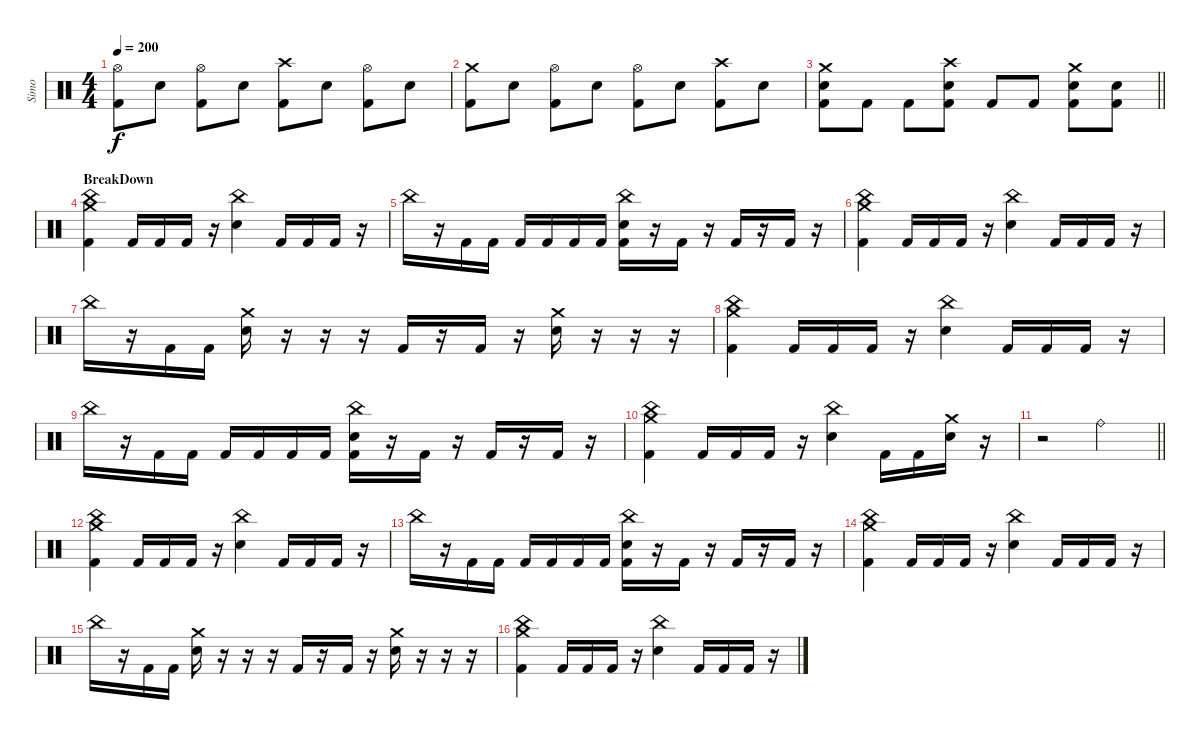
\track ("Simo" "Simo") {instrument percussion bank 121}
\staff {score}
\articulation defaults
\ts (4 4)
\tempo 200
\clef neutral
\ks c
("Kick (hit) 2" "Hi-Hat (open)").8{dy f} "Electric Snare (hit)".8 ("Kick (hit) 2" "Hi-Hat (open)").8 "Electric Snare (hit)".8 ("Kick (hit) 2" "Crash high (hit)").8 "Electric Snare (hit)".8 ("Kick (hit) 2" "Hi-Hat (open)").8 "Electric Snare (hit)".8 |
("Kick (hit) 2" "Crash medium (hit)").8 "Electric Snare (hit)".8 ("Kick (hit) 2" "Hi-Hat (open)").8 "Electric Snare (hit)".8 ("Kick (hit) 2" "Hi-Hat (open)").8 "Electric Snare (hit)".8 ("Kick (hit) 2" "Crash high (hit)").8 "Electric Snare (hit)".8 |
\barLineRight lightlight
("Kick (hit) 2" "Electric Snare (hit)" "Crash medium (hit)").8 "Kick (hit) 2".8 "Kick (hit) 2".8 ("Kick (hit) 2" "Electric Snare (hit)" "Crash high (hit)").8 "Kick (hit) 2".8 "Kick (hit) 2".8 ("Kick (hit) 2" "Electric Snare (hit)" "Crash medium (hit)").8 ("Kick (hit) 2" "Electric Snare (hit)").8 |
\section ("" "BreakDown")
("Kick (hit) 2" "China (hit)" "Crash medium (hit)").4 "Kick (hit) 2".16 "Kick (hit) 2".16 "Kick (hit) 2".16 r.16 ("Electric Snare (hit)" "China (hit)").4 "Kick (hit) 2".16 "Kick (hit) 2".16 "Kick (hit) 2".16 r.16 |
"China (hit)".16 r.16 "Kick (hit) 2".16 "Kick (hit) 2".16 "Kick (hit) 2".16 "Kick (hit) 2".16 "Kick (hit) 2".16 "Kick (hit) 2".16 ("Kick (hit) 2" "China (hit)" "Electric Snare (hit)").16 r.16 "Kick (hit) 2".16 r.16 "Kick (hit) 2".16 r.16 "Kick (hit) 2".16 r.16 |
("Kick (hit) 2" "China (hit)" "Crash medium (hit)").4 "Kick (hit) 2".16 "Kick (hit) 2".16 "Kick (hit) 2".16 r.16 ("Electric Snare (hit)" "China (hit)").4 "Kick (hit) 2".16 "Kick (hit) 2".16 "Kick (hit) 2".16 r.16 |
"China (hit)".16 r.16 "Kick (hit) 2".16 "Kick (hit) 2".16 ("Electric Snare (hit)" "Crash medium (hit)").16 r.16 r.16 r.16 "Kick (hit) 2".16 r.16 "Kick (hit) 2".16 r.16 ("Electric Snare (hit)" "Crash medium (hit)").16 r.16 r.16 r.16 |
("Kick (hit) 2" "China (hit)" "Crash medium (hit)").4 "Kick (hit) 2".16 "Kick (hit) 2".16 "Kick (hit) 2".16 r.16 ("Electric Snare (hit)" "China (hit)").4 "Kick (hit) 2".16 "Kick (hit) 2".16 "Kick (hit) 2".16 r.16 |
"China (hit)".16 r.16 "Kick (hit) 2".16 "Kick (hit) 2".16 "Kick (hit) 2".16 "Kick (hit) 2".16 "Kick (hit) 2".16 "Kick (hit) 2".16 ("Kick (hit) 2" "China (hit)" "Electric Snare (hit)").16 r.16 "Kick (hit) 2".16 r.16 "Kick (hit) 2".16 r.16 "Kick (hit) 2".16 r.16 |
("Kick (hit) 2" "China (hit)" "Crash medium (hit)").4 "Kick (hit) 2".16 "Kick (hit) 2".16 "Kick (hit) 2".16 r.16 ("Electric Snare (hit)" "China (hit)").4 "Kick (hit) 2".16 "Kick (hit) 2".16 ("Electric Snare (hit)" "Crash medium (hit)").16 r.16 |
\barLineRight lightlight
r.2 "Ride (bell)".2 |
\section ("" "")
("Kick (hit) 2" "China (hit)" "Crash medium (hit)").4 "Kick (hit) 2".16 "Kick (hit) 2".16 "Kick (hit) 2".16 r.16 ("Electric Snare (hit)" "China (hit)").4 "Kick (hit) 2".16 "Kick (hit) 2".16 "Kick (hit) 2".16 r.16 |
"China (hit)".16 r.16 "Kick (hit) 2".16 "Kick (hit) 2".16 "Kick (hit) 2".16 "Kick (hit) 2".16 "Kick (hit) 2".16 "Kick (hit) 2".16 ("Kick (hit) 2" "China (hit)" "Electric Snare (hit)").16 r.16 "Kick (hit) 2".16 r.16 "Kick (hit) 2".16 r.16 "Kick (hit) 2".16 r.16 |
("Kick (hit) 2" "China (hit)" "Crash medium (hit)").4 "Kick (hit) 2".16 "Kick (hit) 2".16 "Kick (hit) 2".16 r.16 ("Electric Snare (hit)" "China (hit)").4 "Kick (hit) 2".16 "Kick (hit) 2".16 "Kick (hit) 2".16 r.16 |
"China (hit)".16 r.16 "Kick (hit) 2".16 "Kick (hit) 2".16 ("Electric Snare (hit)" "Crash medium (hit)").16 r.16 r.16 r.16 "Kick (hit) 2".16 r.16 "Kick (hit) 2".16 r.16 ("Electric Snare (hit)" "Crash medium (hit)").16 r.16 r.16 r.16 |
("Kick (hit) 2" "China (hit)" "Crash medium (hit)").4 "Kick (hit) 2".16 "Kick (hit) 2".16 "Kick (hit) 2".16 r.16 ("Electric Snare (hit)" "China (hit)").4 "Kick (hit) 2".16 "Kick (hit) 2".16 "Kick (hit) 2".16 r.16
